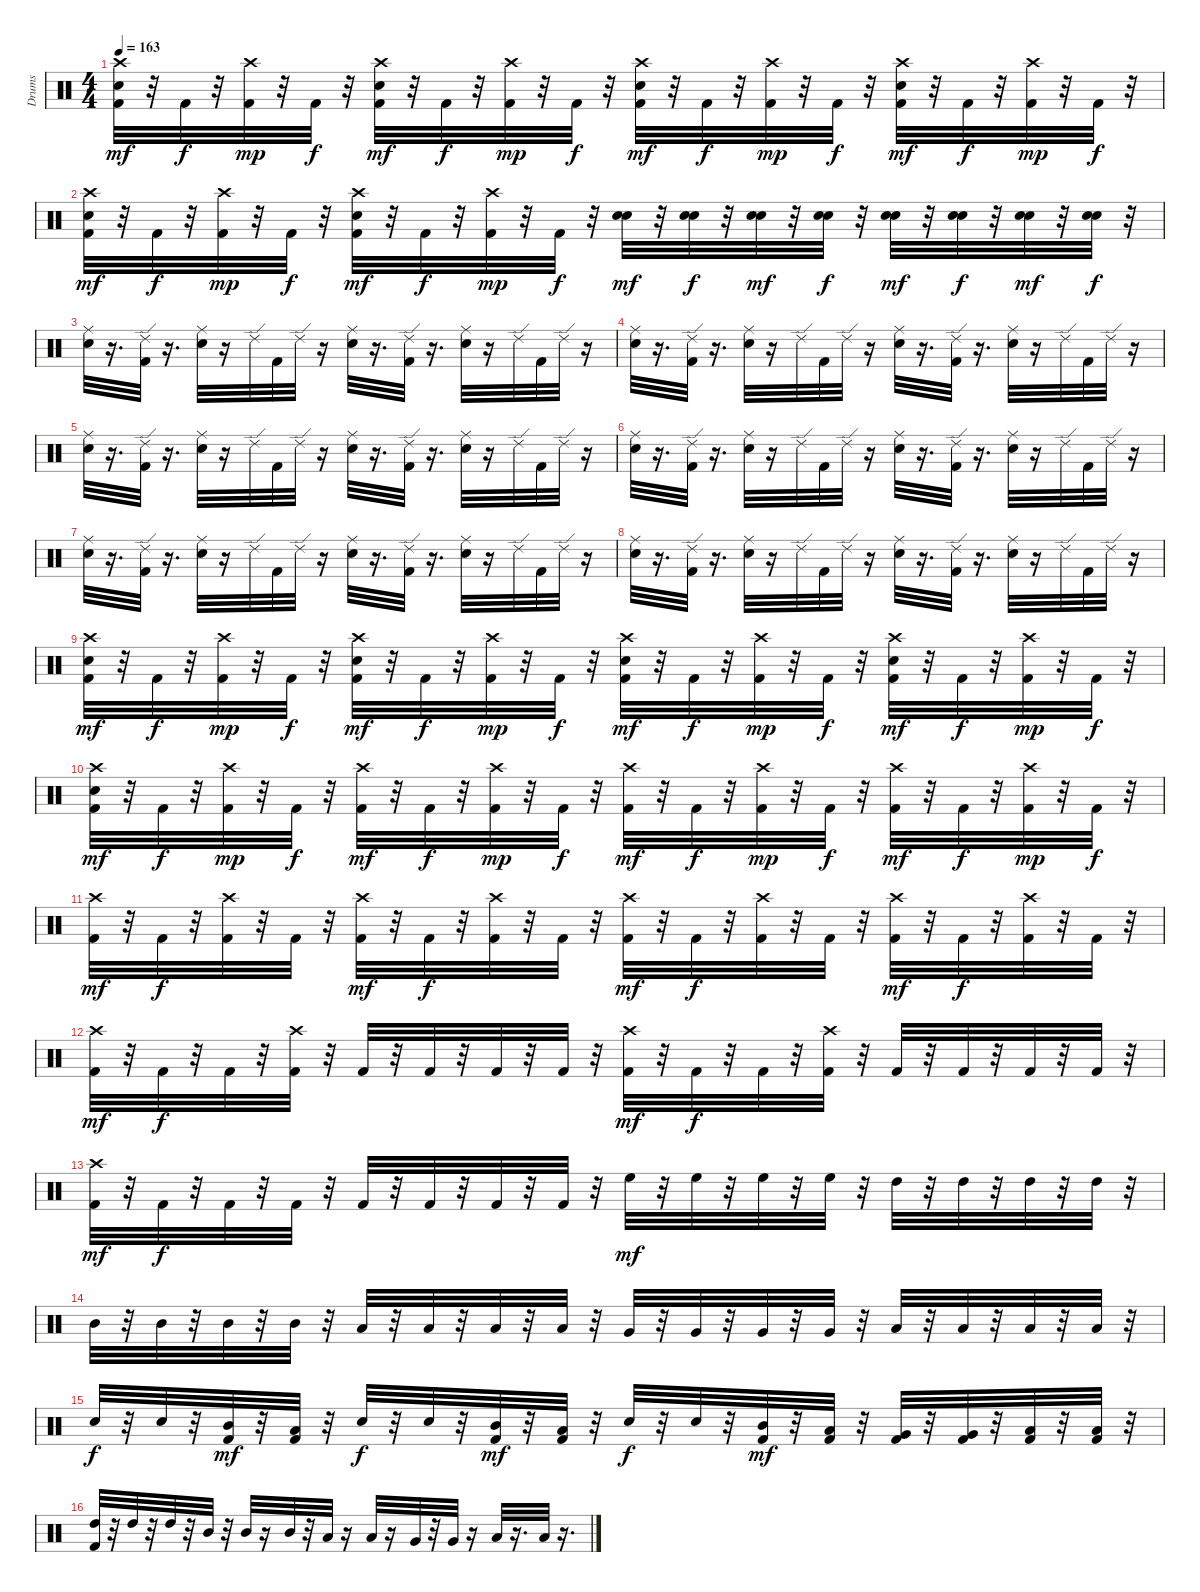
\track ("Drums" "Drums") {instrument percussion}
\staff {score}
\articulation defaults
\ts (4 4)
\tempo 163
\clef neutral
\ks c
("Kick (hit) 2" "Snare (hit) 2" "Crash high (hit)").32{dy mf} r.32 "Kick (hit) 2".32{dy f} r.32 ("Kick (hit) 2" "Crash high (hit)").32{dy mp} r.32 "Kick (hit) 2".32{dy f} r.32 ("Kick (hit) 2" "Snare (hit) 2" "Crash high (hit)").32{dy mf} r.32 "Kick (hit) 2".32{dy f} r.32 ("Kick (hit) 2" "Crash high (hit)").32{dy mp} r.32 "Kick (hit) 2".32{dy f} r.32 ("Kick (hit) 2" "Snare (hit) 2" "Crash high (hit)").32{dy mf} r.32 "Kick (hit) 2".32{dy f} r.32 ("Kick (hit) 2" "Crash high (hit)").32{dy mp} r.32 "Kick (hit) 2".32{dy f} r.32 ("Kick (hit) 2" "Snare (hit) 2" "Crash high (hit)").32{dy mf} r.32 "Kick (hit) 2".32{dy f} r.32 ("Kick (hit) 2" "Crash high (hit)").32{dy mp} r.32 "Kick (hit) 2".32{dy f} r.32 |
("Kick (hit) 2" "Snare (hit) 2" "Crash high (hit)").32{dy mf} r.32 "Kick (hit) 2".32{dy f} r.32 ("Kick (hit) 2" "Crash high (hit)").32{dy mp} r.32 "Kick (hit) 2".32{dy f} r.32 ("Kick (hit) 2" "Snare (hit) 2" "Crash high (hit)").32{dy mf} r.32 "Kick (hit) 2".32{dy f} r.32 ("Kick (hit) 2" "Crash high (hit)").32{dy mp} r.32 "Kick (hit) 2".32{dy f} r.32 ("Snare (hit) 2" "Electric Snare (hit)").32{dy mf} r.32 ("Snare (hit) 2" "Electric Snare (hit)").32{dy f} r.32 ("Snare (hit) 2" "Electric Snare (hit)").32{dy mf} r.32 ("Snare (hit) 2" "Electric Snare (hit)").32{dy f} r.32 ("Snare (hit) 2" "Electric Snare (hit)").32{dy mf} r.32 ("Snare (hit) 2" "Electric Snare (hit)").32{dy f} r.32 ("Snare (hit) 2" "Electric Snare (hit)").32{dy mf} r.32 ("Snare (hit) 2" "Electric Snare (hit)").32{dy f} r.32 |
("Snare (hit) 2" "Ride (middle)").32 r.16{d} ("Kick (hit) 2" "Ride (edge) 2").32 r.16{d} ("Snare (hit) 2" "Ride (middle)").32 r.16 "Ride (edge) 2".32 "Kick (hit) 2".32 "Ride (edge) 2".32 r.16 ("Snare (hit) 2" "Ride (middle)").32 r.16{d} ("Kick (hit) 2" "Ride (edge) 2").32 r.16{d} ("Snare (hit) 2" "Ride (middle)").32 r.16 "Ride (edge) 2".32 "Kick (hit) 2".32 "Ride (edge) 2".32 r.16 |
("Snare (hit) 2" "Ride (middle)").32 r.16{d} ("Kick (hit) 2" "Ride (edge) 2").32 r.16{d} ("Snare (hit) 2" "Ride (middle)").32 r.16 "Ride (edge) 2".32 "Kick (hit) 2".32 "Ride (edge) 2".32 r.16 ("Snare (hit) 2" "Ride (middle)").32 r.16{d} ("Kick (hit) 2" "Ride (edge) 2").32 r.16{d} ("Snare (hit) 2" "Ride (middle)").32 r.16 "Ride (edge) 2".32 "Kick (hit) 2".32 "Ride (edge) 2".32 r.16 |
("Snare (hit) 2" "Ride (middle)").32 r.16{d} ("Kick (hit) 2" "Ride (edge) 2").32 r.16{d} ("Snare (hit) 2" "Ride (middle)").32 r.16 "Ride (edge) 2".32 "Kick (hit) 2".32 "Ride (edge) 2".32 r.16 ("Snare (hit) 2" "Ride (middle)").32 r.16{d} ("Kick (hit) 2" "Ride (edge) 2").32 r.16{d} ("Snare (hit) 2" "Ride (middle)").32 r.16 "Ride (edge) 2".32 "Kick (hit) 2".32 "Ride (edge) 2".32 r.16 |
("Snare (hit) 2" "Ride (middle)").32 r.16{d} ("Kick (hit) 2" "Ride (edge) 2").32 r.16{d} ("Snare (hit) 2" "Ride (middle)").32 r.16 "Ride (edge) 2".32 "Kick (hit) 2".32 "Ride (edge) 2".32 r.16 ("Snare (hit) 2" "Ride (middle)").32 r.16{d} ("Kick (hit) 2" "Ride (edge) 2").32 r.16{d} ("Snare (hit) 2" "Ride (middle)").32 r.16 "Ride (edge) 2".32 "Kick (hit) 2".32 "Ride (edge) 2".32 r.16 |
("Snare (hit) 2" "Ride (middle)").32 r.16{d} ("Kick (hit) 2" "Ride (edge) 2").32 r.16{d} ("Snare (hit) 2" "Ride (middle)").32 r.16 "Ride (edge) 2".32 "Kick (hit) 2".32 "Ride (edge) 2".32 r.16 ("Snare (hit) 2" "Ride (middle)").32 r.16{d} ("Kick (hit) 2" "Ride (edge) 2").32 r.16{d} ("Snare (hit) 2" "Ride (middle)").32 r.16 "Ride (edge) 2".32 "Kick (hit) 2".32 "Ride (edge) 2".32 r.16 |
("Snare (hit) 2" "Ride (middle)").32 r.16{d} ("Kick (hit) 2" "Ride (edge) 2").32 r.16{d} ("Snare (hit) 2" "Ride (middle)").32 r.16 "Ride (edge) 2".32 "Kick (hit) 2".32 "Ride (edge) 2".32 r.16 ("Snare (hit) 2" "Ride (middle)").32 r.16{d} ("Kick (hit) 2" "Ride (edge) 2").32 r.16{d} ("Snare (hit) 2" "Ride (middle)").32 r.16 "Ride (edge) 2".32 "Kick (hit) 2".32 "Ride (edge) 2".32 r.16 |
("Kick (hit) 2" "Snare (hit) 2" "Crash high (hit)").32{dy mf} r.32 "Kick (hit) 2".32{dy f} r.32 ("Kick (hit) 2" "Crash high (hit)").32{dy mp} r.32 "Kick (hit) 2".32{dy f} r.32 ("Kick (hit) 2" "Snare (hit) 2" "Crash high (hit)").32{dy mf} r.32 "Kick (hit) 2".32{dy f} r.32 ("Kick (hit) 2" "Crash high (hit)").32{dy mp} r.32 "Kick (hit) 2".32{dy f} r.32 ("Kick (hit) 2" "Snare (hit) 2" "Crash high (hit)").32{dy mf} r.32 "Kick (hit) 2".32{dy f} r.32 ("Kick (hit) 2" "Crash high (hit)").32{dy mp} r.32 "Kick (hit) 2".32{dy f} r.32 ("Kick (hit) 2" "Snare (hit) 2" "Crash high (hit)").32{dy mf} r.32 "Kick (hit) 2".32{dy f} r.32 ("Kick (hit) 2" "Crash high (hit)").32{dy mp} r.32 "Kick (hit) 2".32{dy f} r.32 |
("Kick (hit) 2" "Snare (hit) 2" "Crash high (hit)").32{dy mf} r.32 "Kick (hit) 2".32{dy f} r.32 ("Kick (hit) 2" "Crash high (hit)").32{dy mp} r.32 "Kick (hit) 2".32{dy f} r.32 ("Kick (hit) 2" "Crash high (hit)").32{dy mf} r.32 "Kick (hit) 2".32{dy f} r.32 ("Kick (hit) 2" "Crash high (hit)").32{dy mp} r.32 "Kick (hit) 2".32{dy f} r.32 ("Kick (hit) 2" "Crash high (hit)").32{dy mf} r.32 "Kick (hit) 2".32{dy f} r.32 ("Kick (hit) 2" "Crash high (hit)").32{dy mp} r.32 "Kick (hit) 2".32{dy f} r.32 ("Kick (hit) 2" "Crash high (hit)").32{dy mf} r.32 "Kick (hit) 2".32{dy f} r.32 ("Kick (hit) 2" "Crash high (hit)").32{dy mp} r.32 "Kick (hit) 2".32{dy f} r.32 |
("Kick (hit) 2" "Crash high (hit)").32{dy mf} r.32 "Kick (hit) 2".32{dy f} r.32 ("Kick (hit) 2" "Crash high (hit)").32 r.32 "Kick (hit) 2".32 r.32 ("Kick (hit) 2" "Crash high (hit)").32{dy mf} r.32 "Kick (hit) 2".32{dy f} r.32 ("Kick (hit) 2" "Crash high (hit)").32 r.32 "Kick (hit) 2".32 r.32 ("Kick (hit) 2" "Crash high (hit)").32{dy mf} r.32 "Kick (hit) 2".32{dy f} r.32 ("Kick (hit) 2" "Crash high (hit)").32 r.32 "Kick (hit) 2".32 r.32 ("Kick (hit) 2" "Crash high (hit)").32{dy mf} r.32 "Kick (hit) 2".32{dy f} r.32 ("Kick (hit) 2" "Crash high (hit)").32 r.32 "Kick (hit) 2".32 r.32 |
("Kick (hit) 2" "Crash high (hit)").32{dy mf} r.32 "Kick (hit) 2".32{dy f} r.32 "Kick (hit) 2".32 r.32 ("Kick (hit) 2" "Crash high (hit)").32 r.32 "Kick (hit) 2".32 r.32 "Kick (hit) 2".32 r.32 "Kick (hit) 2".32 r.32 "Kick (hit) 2".32 r.32 ("Kick (hit) 2" "Crash high (hit)").32{dy mf} r.32 "Kick (hit) 2".32{dy f} r.32 "Kick (hit) 2".32 r.32 ("Kick (hit) 2" "Crash high (hit)").32 r.32 "Kick (hit) 2".32 r.32 "Kick (hit) 2".32 r.32 "Kick (hit) 2".32 r.32 "Kick (hit) 2".32 r.32 |
("Kick (hit) 2" "Crash high (hit)").32{dy mf} r.32 "Kick (hit) 2".32{dy f} r.32 "Kick (hit) 2".32 r.32 "Kick (hit) 2".32 r.32 "Kick (hit) 2".32 r.32 "Kick (hit) 2".32 r.32 "Kick (hit) 2".32 r.32 "Kick (hit) 2".32 r.32 "High Floor Tom (hit)".32{dy mf} r.32 "High Floor Tom (hit)".32 r.32 "High Floor Tom (hit)".32 r.32 "High Floor Tom (hit)".32 r.32 "High Tom (hit)".32 r.32 "High Tom (hit)".32 r.32 "High Tom (hit)".32 r.32 "High Tom (hit)".32 r.32 |
"Mid Tom (hit)".32 r.32 "Mid Tom (hit)".32 r.32 "Mid Tom (hit)".32 r.32 "Mid Tom (hit)".32 r.32 "Low Tom (hit)".32 r.32 "Low Tom (hit)".32 r.32 "Low Tom (hit)".32 r.32 "Low Tom (hit)".32 r.32 "Very Low Tom (hit)".32 r.32 "Very Low Tom (hit)".32 r.32 "Very Low Tom (hit)".32 r.32 "Very Low Tom (hit)".32 r.32 "Low Floor Tom (hit)".32 r.32 "Low Floor Tom (hit)".32 r.32 "Low Floor Tom (hit)".32 r.32 "Low Floor Tom (hit)".32 r.32 |
"Snare (hit) 2".32{dy f} r.32 "Snare (hit) 2".32 r.32 ("Kick (hit) 2" "Mid Tom (hit)").32{dy mf} r.32 ("Kick (hit) 2" "Low Tom (hit)").32 r.32 "Snare (hit) 2".32{dy f} r.32 "Snare (hit) 2".32 r.32 ("Kick (hit) 2" "Mid Tom (hit)").32{dy mf} r.32 ("Kick (hit) 2" "Low Tom (hit)").32 r.32 "Snare (hit) 2".32{dy f} r.32 "Snare (hit) 2".32 r.32 ("Kick (hit) 2" "Mid Tom (hit)").32{dy mf} r.32 ("Kick (hit) 2" "Low Tom (hit)").32 r.32 ("Kick (hit) 2" "Very Low Tom (hit)").32 r.32 ("Kick (hit) 2" "Very Low Tom (hit)").32 r.32 ("Kick (hit) 2" "Low Floor Tom (hit)").32 r.32 ("Kick (hit) 2" "Low Floor Tom (hit)").32 r.32 |
("Kick (hit) 2" "High Tom (hit)").32 r.32 "High Tom (hit)".32 r.32 "High Tom (hit)".32 r.32 "Mid Tom (hit)".32 r.32 "Mid Tom (hit)".32 r.16 "Mid Tom (hit)".32 r.32 "Low Tom (hit)".32 r.16 "Low Tom (hit)".32 r.16 "Very Low Tom (hit)".32 r.32 "Very Low Tom (hit)".32 r.16 "Low Floor Tom (hit)".32 r.16{d} "Low Floor Tom (hit)".32 r.16{d}
